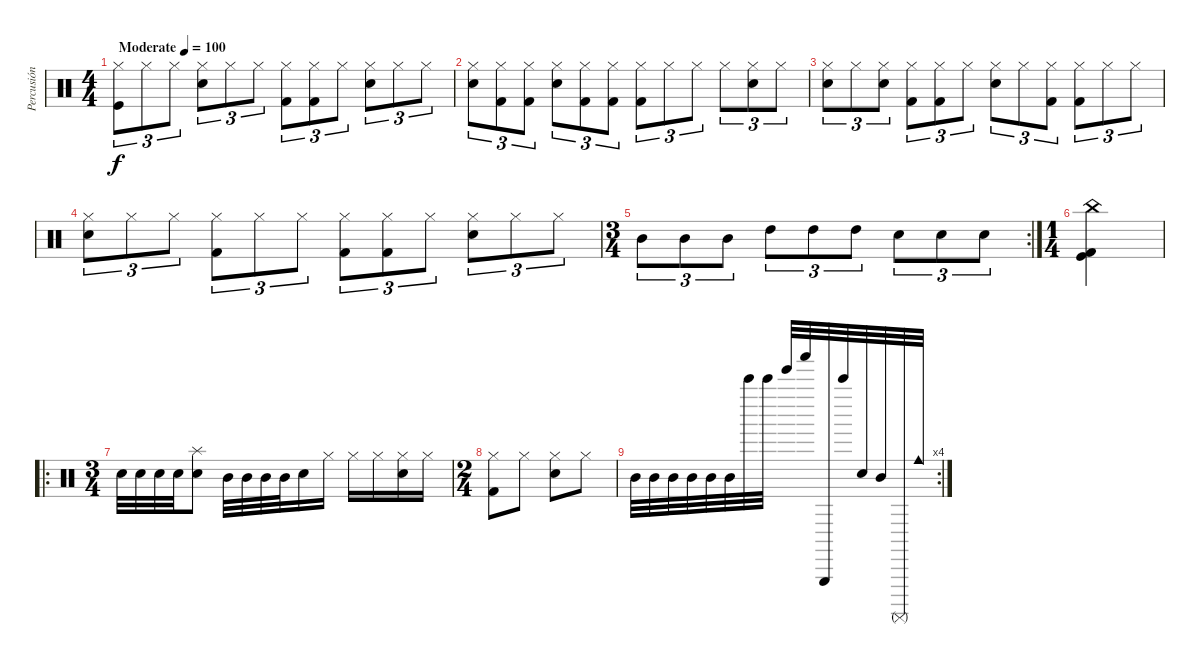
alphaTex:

\track ("Percusión" "Percusión") {instrument percussion}
\staff {score}
\articulation defaults
\ts (4 4)
\tempo (100 "Moderate")
\clef neutral
\ks c
("Kick (hit)" "Hi-Hat (closed)").8{tu (3 2) dy f} "Hi-Hat (closed)".8{tu (3 2)} "Hi-Hat (closed)".8{tu (3 2)} ("Snare (hit) 2" "Hi-Hat (closed)").8{tu (3 2)} "Hi-Hat (closed)".8{tu (3 2)} "Hi-Hat (closed)".8{tu (3 2)} ("Kick (hit) 2" "Hi-Hat (closed)").8{tu (3 2)} ("Kick (hit) 2" "Hi-Hat (closed)").8{tu (3 2)} "Hi-Hat (closed)".8{tu (3 2)} ("Snare (hit) 2" "Hi-Hat (closed)").8{tu (3 2)} "Hi-Hat (closed)".8{tu (3 2)} "Hi-Hat (closed)".8{tu (3 2)} |
("Snare (hit) 2" "Hi-Hat (closed)").8{tu (3 2)} ("Kick (hit) 2" "Hi-Hat (closed)").8{tu (3 2)} ("Kick (hit) 2" "Hi-Hat (closed)").8{tu (3 2)} ("Snare (hit) 2" "Hi-Hat (closed)").8{tu (3 2)} ("Kick (hit) 2" "Hi-Hat (closed)").8{tu (3 2)} ("Kick (hit) 2" "Hi-Hat (closed)").8{tu (3 2)} ("Kick (hit) 2" "Hi-Hat (closed)").8{tu (3 2)} "Hi-Hat (closed)".8{tu (3 2)} "Hi-Hat (closed)".8{tu (3 2)} "Hi-Hat (closed)".8{tu (3 2)} ("Snare (hit) 2" "Hi-Hat (closed)").8{tu (3 2)} "Hi-Hat (closed)".8{tu (3 2)} |
("Snare (hit) 2" "Hi-Hat (closed)").8{tu (3 2)} "Hi-Hat (closed)".8{tu (3 2)} ("Snare (hit) 2" "Hi-Hat (closed)").8{tu (3 2)} ("Kick (hit) 2" "Hi-Hat (closed)").8{tu (3 2)} ("Kick (hit) 2" "Hi-Hat (closed)").8{tu (3 2)} "Hi-Hat (closed)".8{tu (3 2)} ("Snare (hit) 2" "Hi-Hat (closed)").8{tu (3 2)} "Hi-Hat (closed)".8{tu (3 2)} ("Kick (hit) 2" "Hi-Hat (closed)").8{tu (3 2)} ("Kick (hit) 2" "Hi-Hat (closed)").8{tu (3 2)} "Hi-Hat (closed)".8{tu (3 2)} "Hi-Hat (closed)".8{tu (3 2)} |
("Snare (hit) 2" "Hi-Hat (closed)").8{tu (3 2)} "Hi-Hat (closed)".8{tu (3 2)} "Hi-Hat (closed)".8{tu (3 2)} ("Kick (hit) 2" "Hi-Hat (closed)").8{tu (3 2)} "Hi-Hat (closed)".8{tu (3 2)} "Hi-Hat (closed)".8{tu (3 2)} ("Kick (hit) 2" "Hi-Hat (closed)").8{tu (3 2)} ("Kick (hit) 2" "Hi-Hat (closed)").8{tu (3 2)} "Hi-Hat (closed)".8{tu (3 2)} ("Snare (hit) 2" "Hi-Hat (closed)").8{tu (3 2)} "Hi-Hat (closed)".8{tu (3 2)} "Hi-Hat (closed)".8{tu (3 2)} |
\rc 2
\ts (3 4)
"Mid Tom (hit)".8{tu (3 2)} "Mid Tom (hit)".8{tu (3 2)} "Mid Tom (hit)".8{tu (3 2)} "High Tom (hit)".8{tu (3 2)} "High Tom (hit)".8{tu (3 2)} "High Tom (hit)".8{tu (3 2)} "Snare (hit) 2".8{tu (3 2)} "Snare (hit) 2".8{tu (3 2)} "Snare (hit) 2".8{tu (3 2)} |
\ts (1 4)
("Kick (hit) 2" "Kick (hit)" "China (hit)").4 |
\ro
\ts (3 4)
"Snare (hit) 2".32 "Snare (hit) 2".32 "Snare (hit) 2".32 "Snare (hit) 2".32 ("Splash (hit)" "Snare (hit) 2").8 "Mid Tom (hit)".32 "Mid Tom (hit)".32 "Mid Tom (hit)".32 "Mid Tom (hit)".32 "Snare (hit) 2".16 "Hi-Hat (closed)".16 "Hi-Hat (closed)".16 "Hi-Hat (closed)".16 ("Snare (hit) 2" "Hi-Hat (closed)").16 "Hi-Hat (closed)".16 |
\ts (2 4)
("Hi-Hat (closed)" "Kick (hit) 2").8 "Hi-Hat (closed)".8 ("Hi-Hat (closed)" "Snare (hit) 2").8 "Hi-Hat (closed)".8 |
\rc 4 "Mid Tom (hit)".32 "Mid Tom (hit)".32 "Mid Tom (hit)".32 "Mid Tom (hit)".32 "Mid Tom (hit)".32 "Mid Tom (hit)".32 "Bell Tree (hit)".32 "Bell Tree (hit)".32 "Tinkle Bell (hit)".32 "Shaker (hit)".32 "Triangle (hit)".32 "Bell Tree (hit)".32 "Snare (hit) 2".32 "Mid Tom (hit)".32 "Surdo (mute)".32 "Cowbell medium (hit)".32
